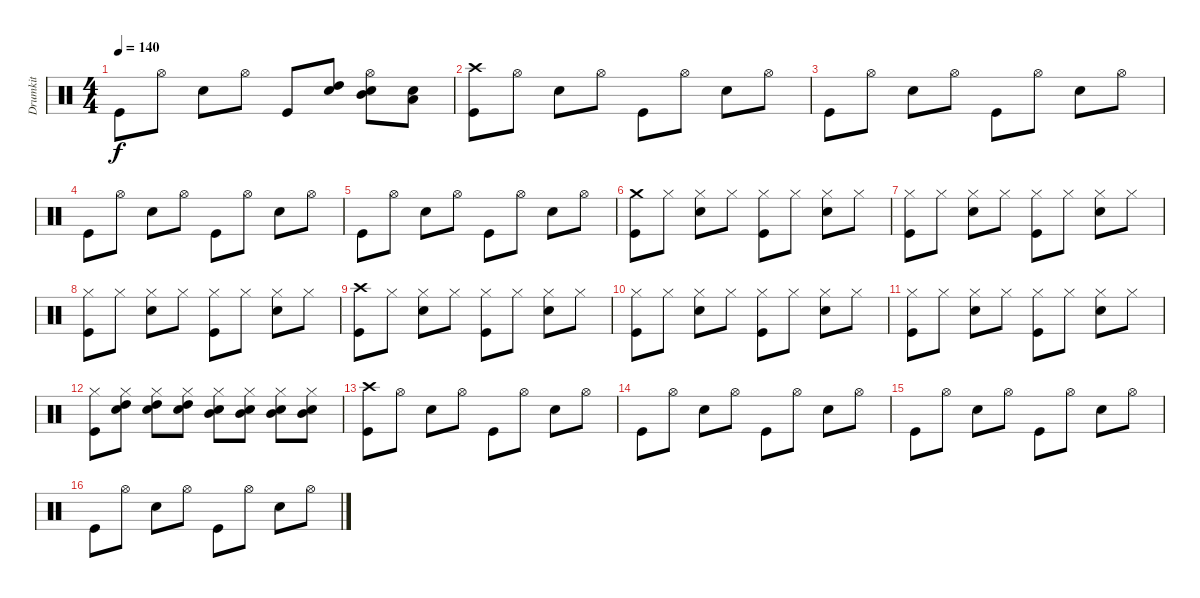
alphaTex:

\track ("Drumkit" "Drumkit") {instrument percussion}
\staff {score}
\articulation defaults
\ts (4 4)
\tempo 140
\clef neutral
\ks c "Kick (hit)".8{dy f} "Hi-Hat (open)".8 "Snare (hit) 2".8 "Hi-Hat (open)".8 "Kick (hit)".8
("High Tom (hit)" "Snare (hit) 2").8 ("Hi-Hat (open)" "Mid Tom (hit)" "Snare (hit) 2").8 ("Low Tom (hit)" "Snare (hit) 2").8 |
("Crash high (hit)" "Kick (hit)").8 "Hi-Hat (open)".8 "Snare (hit) 2".8 "Hi-Hat (open)".8 "Kick (hit)".8 "Hi-Hat (open)".8 "Snare (hit) 2".8 "Hi-Hat (open)".8 |
"Kick (hit)".8 "Hi-Hat (open)".8 "Snare (hit) 2".8 "Hi-Hat (open)".8 "Kick (hit)".8 "Hi-Hat (open)".8 "Snare (hit) 2".8 "Hi-Hat (open)".8 |
"Kick (hit)".8 "Hi-Hat (open)".8 "Snare (hit) 2".8 "Hi-Hat (open)".8 "Kick (hit)".8 "Hi-Hat (open)".8 "Snare (hit) 2".8 "Hi-Hat (open)".8 |
"Kick (hit)".8 "Hi-Hat (open)".8 "Snare (hit) 2".8 "Hi-Hat (open)".8 "Kick (hit)".8 "Hi-Hat (open)".8 "Snare (hit) 2".8 "Hi-Hat (open)".8 |
("Crash medium (hit)" "Kick (hit)").8 "Hi-Hat (closed)".8 ("Hi-Hat (closed)" "Snare (hit) 2").8 "Hi-Hat (closed)".8 ("Hi-Hat (closed)" "Kick (hit)").8 "Hi-Hat (closed)".8 ("Hi-Hat (closed)" "Snare (hit) 2").8 "Hi-Hat (closed)".8 |
("Hi-Hat (closed)" "Kick (hit)").8 "Hi-Hat (closed)".8 ("Hi-Hat (closed)" "Snare (hit) 2").8 "Hi-Hat (closed)".8 ("Hi-Hat (closed)" "Kick (hit)").8 "Hi-Hat (closed)".8 ("Hi-Hat (closed)" "Snare (hit) 2").8 "Hi-Hat (closed)".8 |
("Hi-Hat (closed)" "Kick (hit)").8 "Hi-Hat (closed)".8 ("Hi-Hat (closed)" "Snare (hit) 2").8 "Hi-Hat (closed)".8 ("Hi-Hat (closed)" "Kick (hit)").8 "Hi-Hat (closed)".8 ("Hi-Hat (closed)" "Snare (hit) 2").8 "Hi-Hat (closed)".8 |
("Crash high (hit)" "Kick (hit)").8 "Hi-Hat (closed)".8 ("Hi-Hat (closed)" "Snare (hit) 2").8 "Hi-Hat (closed)".8 ("Hi-Hat (closed)" "Kick (hit)").8 "Hi-Hat (closed)".8 ("Hi-Hat (closed)" "Snare (hit) 2").8 "Hi-Hat (closed)".8 |
("Hi-Hat (closed)" "Kick (hit)").8 "Hi-Hat (closed)".8 ("Hi-Hat (closed)" "Snare (hit) 2").8 "Hi-Hat (closed)".8 ("Hi-Hat (closed)" "Kick (hit)").8 "Hi-Hat (closed)".8 ("Hi-Hat (closed)" "Snare (hit) 2").8 "Hi-Hat (closed)".8 |
("Hi-Hat (closed)" "Kick (hit)").8 "Hi-Hat (closed)".8 ("Hi-Hat (closed)" "Snare (hit) 2").8 "Hi-Hat (closed)".8 ("Hi-Hat (closed)" "Kick (hit)").8 "Hi-Hat (closed)".8 ("Hi-Hat (closed)" "Snare (hit) 2").8 "Hi-Hat (closed)".8 |
("Hi-Hat (closed)" "Kick (hit)").8 ("Hi-Hat (closed)" "High Tom (hit)" "Snare (hit) 2").8 ("Hi-Hat (closed)" "High Tom (hit)" "Snare (hit) 2").8 ("Hi-Hat (closed)" "High Tom (hit)" "Snare (hit) 2").8 ("Hi-Hat (closed)" "Mid Tom (hit)" "Snare (hit) 2").8 ("Hi-Hat (closed)" "Mid Tom (hit)" "Snare (hit) 2").8 ("Hi-Hat (closed)" "Mid Tom (hit)" "Snare (hit) 2").8 ("Hi-Hat (closed)" "Mid Tom (hit)" "Snare (hit) 2").8 |
("Crash high (hit)" "Kick (hit)").8 "Hi-Hat (open)".8 "Snare (hit) 2".8 "Hi-Hat (open)".8 "Kick (hit)".8 "Hi-Hat (open)".8 "Snare (hit) 2".8 "Hi-Hat (open)".8 |
"Kick (hit)".8 "Hi-Hat (open)".8 "Snare (hit) 2".8 "Hi-Hat (open)".8 "Kick (hit)".8 "Hi-Hat (open)".8 "Snare (hit) 2".8 "Hi-Hat (open)".8 |
"Kick (hit)".8 "Hi-Hat (open)".8 "Snare (hit) 2".8 "Hi-Hat (open)".8 "Kick (hit)".8 "Hi-Hat (open)".8 "Snare (hit) 2".8 "Hi-Hat (open)".8 |
"Kick (hit)".8 "Hi-Hat (open)".8 "Snare (hit) 2".8 "Hi-Hat (open)".8 "Kick (hit)".8 "Hi-Hat (open)".8 "Snare (hit) 2".8 "Hi-Hat (open)".8
